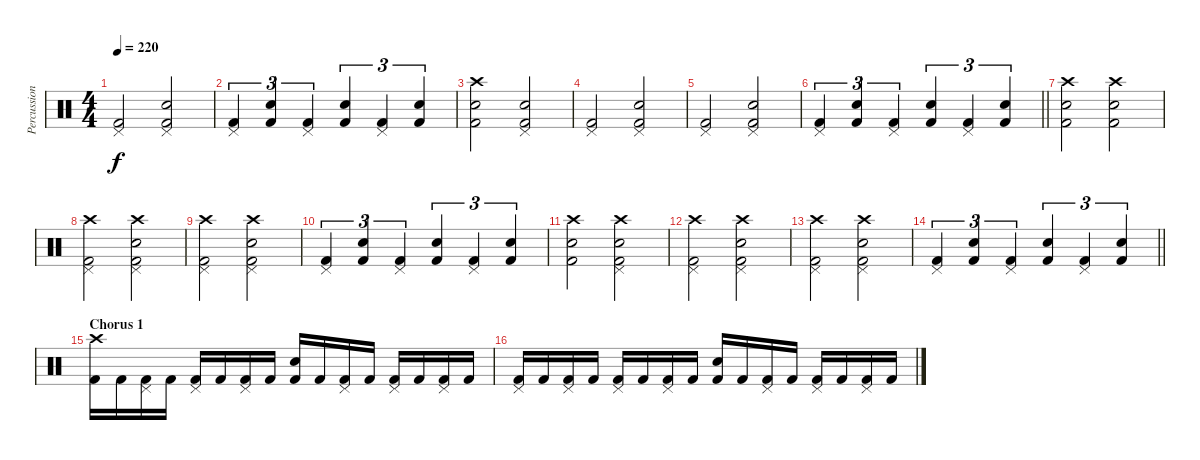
\track ("Percussion" "Percussion") {instrument percussion}
\staff {score}
\articulation defaults
\ts (4 4)
\tempo 220
\clef neutral
\ks c
("Pedal Hi-Hat (hit)" "Kick (hit) 2").2{dy f} ("Snare (hit) 2" "Pedal Hi-Hat (hit)" "Kick (hit) 2").2 |
("Pedal Hi-Hat (hit)" "Kick (hit) 2").4{tu (3 2)} ("Snare (hit) 2" "Kick (hit) 2").4{tu (3 2)} ("Pedal Hi-Hat (hit)" "Kick (hit) 2").4{tu (3 2)} ("Snare (hit) 2" "Kick (hit) 2").4{tu (3 2)} ("Pedal Hi-Hat (hit)" "Kick (hit) 2").4{tu (3 2)} ("Snare (hit) 2" "Kick (hit) 2").4{tu (3 2)} |
("Crash high (hit)" "Snare (hit) 2" "Kick (hit) 2").2 ("Snare (hit) 2" "Pedal Hi-Hat (hit)" "Kick (hit) 2").2 |
("Pedal Hi-Hat (hit)" "Kick (hit) 2").2 ("Snare (hit) 2" "Pedal Hi-Hat (hit)" "Kick (hit) 2").2 |
("Pedal Hi-Hat (hit)" "Kick (hit) 2").2 ("Snare (hit) 2" "Pedal Hi-Hat (hit)" "Kick (hit) 2").2 |
\barLineRight lightlight
("Pedal Hi-Hat (hit)" "Kick (hit) 2").4{tu (3 2)} ("Snare (hit) 2" "Kick (hit) 2").4{tu (3 2)} ("Pedal Hi-Hat (hit)" "Kick (hit) 2").4{tu (3 2)} ("Snare (hit) 2" "Kick (hit) 2").4{tu (3 2)} ("Pedal Hi-Hat (hit)" "Kick (hit) 2").4{tu (3 2)} ("Snare (hit) 2" "Kick (hit) 2").4{tu (3 2)} |
("Crash high (hit)" "Snare (hit) 2" "Kick (hit) 2").2 ("Crash high (hit)" "Snare (hit) 2" "Kick (hit) 2").2 |
("Crash high (hit)" "Pedal Hi-Hat (hit)" "Kick (hit) 2").2 ("Crash high (hit)" "Snare (hit) 2" "Pedal Hi-Hat (hit)" "Kick (hit) 2").2 |
("Crash high (hit)" "Pedal Hi-Hat (hit)" "Kick (hit) 2").2 ("Crash high (hit)" "Snare (hit) 2" "Pedal Hi-Hat (hit)" "Kick (hit) 2").2 |
("Pedal Hi-Hat (hit)" "Kick (hit) 2").4{tu (3 2)} ("Snare (hit) 2" "Kick (hit) 2").4{tu (3 2)} ("Pedal Hi-Hat (hit)" "Kick (hit) 2").4{tu (3 2)} ("Snare (hit) 2" "Kick (hit) 2").4{tu (3 2)} ("Pedal Hi-Hat (hit)" "Kick (hit) 2").4{tu (3 2)} ("Snare (hit) 2" "Kick (hit) 2").4{tu (3 2)} |
("Crash high (hit)" "Snare (hit) 2" "Kick (hit) 2").2 ("Crash high (hit)" "Snare (hit) 2" "Pedal Hi-Hat (hit)" "Kick (hit) 2").2 |
("Crash high (hit)" "Pedal Hi-Hat (hit)" "Kick (hit) 2").2 ("Crash high (hit)" "Snare (hit) 2" "Pedal Hi-Hat (hit)" "Kick (hit) 2").2 |
("Crash high (hit)" "Pedal Hi-Hat (hit)" "Kick (hit) 2").2 ("Crash high (hit)" "Snare (hit) 2" "Pedal Hi-Hat (hit)" "Kick (hit) 2").2 |
\barLineRight lightlight
("Pedal Hi-Hat (hit)" "Kick (hit) 2").4{tu (3 2)} ("Snare (hit) 2" "Kick (hit) 2").4{tu (3 2)} ("Pedal Hi-Hat (hit)" "Kick (hit) 2").4{tu (3 2)} ("Snare (hit) 2" "Kick (hit) 2").4{tu (3 2)} ("Pedal Hi-Hat (hit)" "Kick (hit) 2").4{tu (3 2)} ("Snare (hit) 2" "Kick (hit) 2").4{tu (3 2)} |
\section ("" "Chorus 1")
("Crash high (hit)" "Kick (hit) 2").16 "Kick (hit) 2".16 ("Pedal Hi-Hat (hit)" "Kick (hit) 2").16 "Kick (hit) 2".16 ("Pedal Hi-Hat (hit)" "Kick (hit) 2").16 "Kick (hit) 2".16 ("Pedal Hi-Hat (hit)" "Kick (hit) 2").16 "Kick (hit) 2".16 ("Snare (hit) 2" "Kick (hit) 2").16 "Kick (hit) 2".16 ("Pedal Hi-Hat (hit)" "Kick (hit) 2").16 "Kick (hit) 2".16 ("Pedal Hi-Hat (hit)" "Kick (hit) 2").16 "Kick (hit) 2".16 ("Pedal Hi-Hat (hit)" "Kick (hit) 2").16 "Kick (hit) 2".16 |
("Pedal Hi-Hat (hit)" "Kick (hit) 2").16 "Kick (hit) 2".16 ("Pedal Hi-Hat (hit)" "Kick (hit) 2").16 "Kick (hit) 2".16 ("Pedal Hi-Hat (hit)" "Kick (hit) 2").16 "Kick (hit) 2".16 ("Pedal Hi-Hat (hit)" "Kick (hit) 2").16 "Kick (hit) 2".16 ("Snare (hit) 2" "Kick (hit) 2").16 "Kick (hit) 2".16 ("Pedal Hi-Hat (hit)" "Kick (hit) 2").16 "Kick (hit) 2".16 ("Pedal Hi-Hat (hit)" "Kick (hit) 2").16 "Kick (hit) 2".16 ("Pedal Hi-Hat (hit)" "Kick (hit) 2").16 "Kick (hit) 2".16
